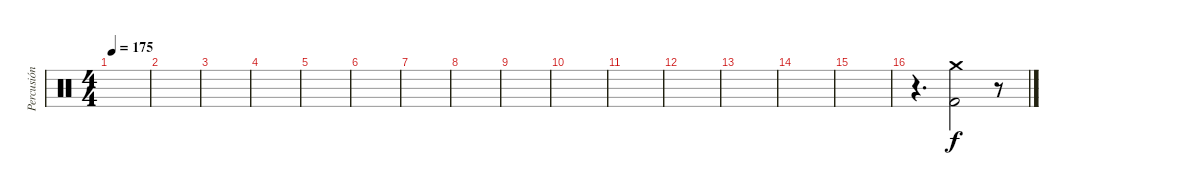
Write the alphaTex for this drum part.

\track ("Percusión" "Percusión") {instrument percussion}
\staff {score}
\articulation defaults
\ts (4 4)
\tempo 175
\clef neutral
\ks c
|
|
|
|
|
|
|
|
|
|
|
|
|
|
|
r.4{d} ("Crash medium (hit)" "Kick (hit) 2").2 r.8
